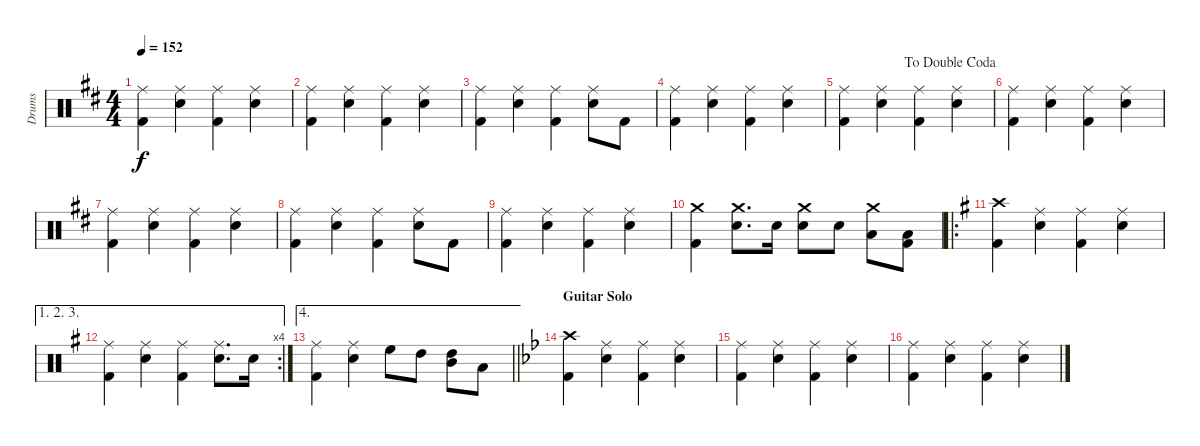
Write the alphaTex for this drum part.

\track ("Drums" "Drums") {instrument percussion}
\staff {score}
\articulation defaults
\ts (4 4)
\tempo 152
\clef neutral
\ks d
("Ride (middle)" "Kick (hit) 2").4{dy f} ("Ride (middle)" "Snare (hit) 2").4 ("Ride (middle)" "Kick (hit) 2").4 ("Ride (middle)" "Snare (hit) 2").4 |
("Ride (middle)" "Kick (hit) 2").4 ("Ride (middle)" "Snare (hit) 2").4 ("Ride (middle)" "Kick (hit) 2").4 ("Ride (middle)" "Snare (hit) 2").4 |
("Ride (middle)" "Kick (hit) 2").4 ("Ride (middle)" "Snare (hit) 2").4 ("Ride (middle)" "Kick (hit) 2").4 ("Ride (middle)" "Snare (hit) 2").8 "Kick (hit) 2".8 |
("Ride (middle)" "Kick (hit) 2").4 ("Ride (middle)" "Snare (hit) 2").4 ("Ride (middle)" "Kick (hit) 2").4 ("Ride (middle)" "Snare (hit) 2").4 |
\jump dadoublecoda
("Ride (middle)" "Kick (hit) 2").4 ("Ride (middle)" "Snare (hit) 2").4 ("Ride (middle)" "Kick (hit) 2").4 ("Ride (middle)" "Snare (hit) 2").4 |
("Ride (middle)" "Kick (hit) 2").4 ("Ride (middle)" "Snare (hit) 2").4 ("Ride (middle)" "Kick (hit) 2").4 ("Ride (middle)" "Snare (hit) 2").4 |
("Ride (middle)" "Kick (hit) 2").4 ("Ride (middle)" "Snare (hit) 2").4 ("Ride (middle)" "Kick (hit) 2").4 ("Ride (middle)" "Snare (hit) 2").4 |
("Ride (middle)" "Kick (hit) 2").4 ("Ride (middle)" "Snare (hit) 2").4 ("Ride (middle)" "Kick (hit) 2").4 ("Ride (middle)" "Snare (hit) 2").8 "Kick (hit) 2".8 |
("Ride (middle)" "Kick (hit) 2").4 ("Ride (middle)" "Snare (hit) 2").4 ("Ride (middle)" "Kick (hit) 2").4 ("Ride (middle)" "Snare (hit) 2").4 |
("Crash medium (hit)" "Kick (hit) 2").4 ("Crash medium (hit)" "Snare (hit) 2").8{d} "Snare (hit) 2".16 ("Crash medium (hit)" "Snare (hit) 2").8 "Snare (hit) 2".8 ("Crash medium (hit)" "Low Floor Tom (hit)").8 ("Low Floor Tom (hit)" "Kick (hit) 2").8 |
\ro
\ks g
("Crash high (hit)" "Kick (hit) 2").4 ("Ride (middle)" "Snare (hit) 2").4 ("Ride (middle)" "Kick (hit) 2").4 ("Ride (middle)" "Snare (hit) 2").4 |
\ae (1 2 3)
\rc 4
("Ride (middle)" "Kick (hit) 2").4 ("Ride (middle)" "Snare (hit) 2").4 ("Ride (middle)" "Kick (hit) 2").4 ("Ride (middle)" "Snare (hit) 2").8{d} "Snare (hit) 2".16 |
\ae 4
\barLineRight lightlight
("Ride (middle)" "Kick (hit) 2").4 ("Ride (middle)" "Snare (hit) 2").4 "High Floor Tom (hit)".8 "High Tom (hit)".8 ("High Tom (hit)" "Mid Tom (hit)").8 "Low Floor Tom (hit)".8 |
\section ("" "Guitar Solo")
\ks bb
("Crash high (hit)" "Kick (hit) 2").4 ("Ride (middle)" "Snare (hit) 2").4 ("Ride (middle)" "Kick (hit) 2").4 ("Ride (middle)" "Snare (hit) 2").4 |
("Ride (middle)" "Kick (hit) 2").4 ("Ride (middle)" "Snare (hit) 2").4 ("Ride (middle)" "Kick (hit) 2").4 ("Ride (middle)" "Snare (hit) 2").4 |
("Ride (middle)" "Kick (hit) 2").4 ("Ride (middle)" "Snare (hit) 2").4 ("Ride (middle)" "Kick (hit) 2").4 ("Ride (middle)" "Snare (hit) 2").4
